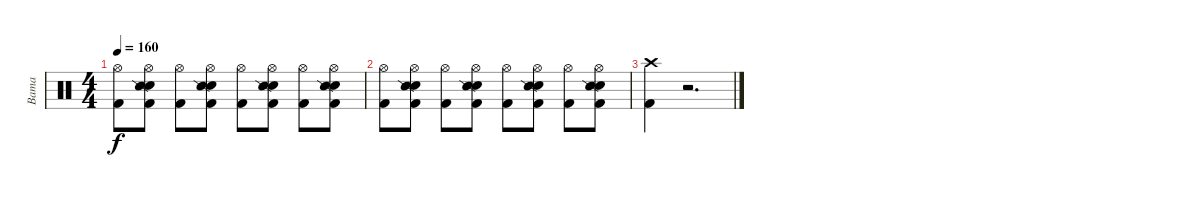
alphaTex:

\track ("Bama" "Bama") {instrument percussion}
\staff {score}
\articulation defaults
\ts (4 4)
\tempo 160
\clef neutral
\ks c
("Hi-Hat (open)" "Kick (hit) 2").8{dy f} ("Hi-Hat (open)" "Electric Snare (hit)" "Snare (side stick) 2" "Kick (hit) 2").8 ("Hi-Hat (open)" "Kick (hit) 2").8 ("Hi-Hat (open)" "Electric Snare (hit)" "Snare (side stick) 2" "Kick (hit) 2").8 ("Hi-Hat (open)" "Kick (hit) 2").8 ("Hi-Hat (open)" "Electric Snare (hit)" "Snare (side stick) 2" "Kick (hit) 2").8 ("Hi-Hat (open)" "Kick (hit) 2").8 ("Hi-Hat (open)" "Electric Snare (hit)" "Snare (side stick) 2" "Kick (hit) 2").8 |
("Hi-Hat (open)" "Kick (hit) 2").8 ("Hi-Hat (open)" "Electric Snare (hit)" "Snare (side stick) 2" "Kick (hit) 2").8 ("Hi-Hat (open)" "Kick (hit) 2").8 ("Hi-Hat (open)" "Electric Snare (hit)" "Snare (side stick) 2" "Kick (hit) 2").8 ("Hi-Hat (open)" "Kick (hit) 2").8 ("Hi-Hat (open)" "Electric Snare (hit)" "Snare (side stick) 2" "Kick (hit) 2").8 ("Hi-Hat (open)" "Kick (hit) 2").8 ("Hi-Hat (open)" "Electric Snare (hit)" "Snare (side stick) 2" "Kick (hit) 2").8 |
("Crash high (hit)" "Kick (hit) 2").4 r.2{d}
